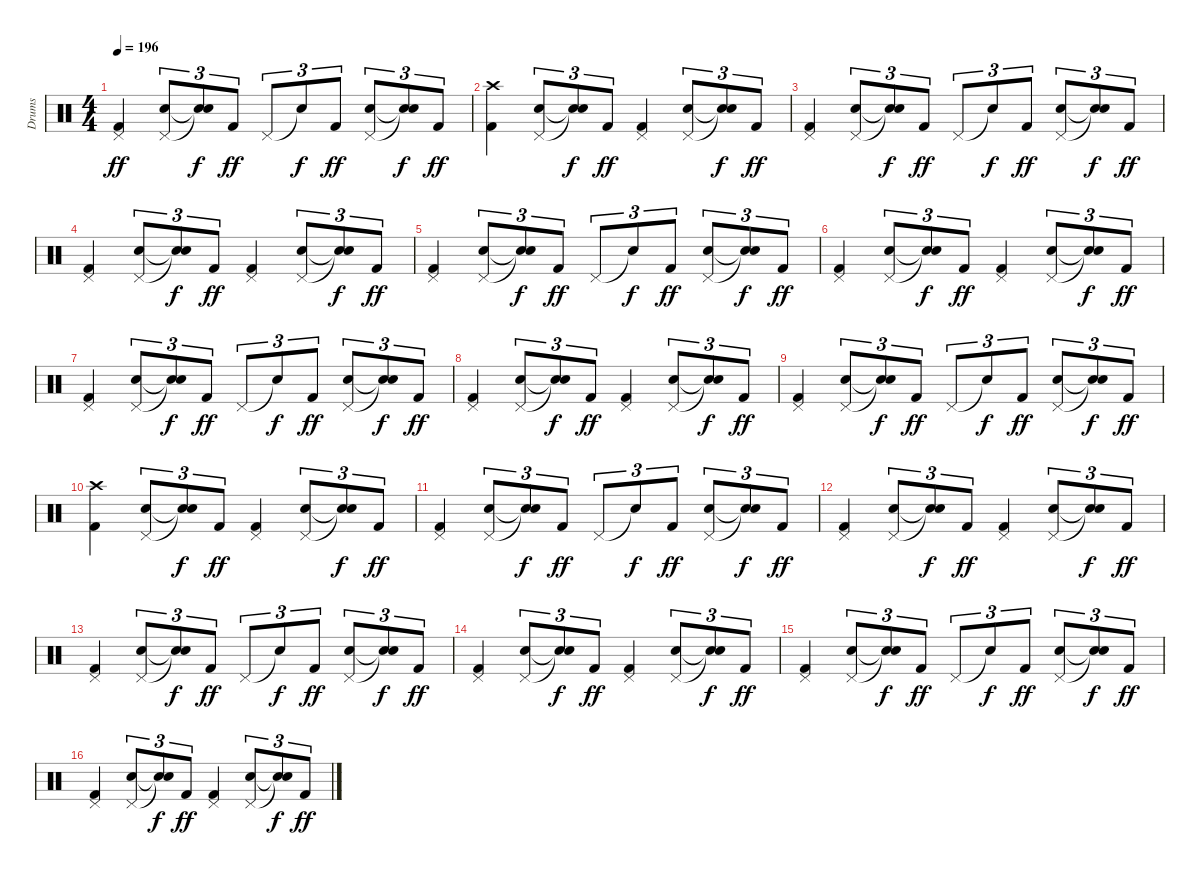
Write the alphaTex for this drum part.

\track ("Drums" "Drums") {instrument percussion}
\staff {score}
\articulation defaults
\ts (4 4)
\tempo 196
\clef neutral
\ks c
("Pedal Hi-Hat (hit)" "Kick (hit) 2").4{dy ff} ("Pedal Hi-Hat (hit)" "Electric Snare (hit)").8{tu (3 2)} ("Snare (hit)"{t} "Snare (hit)"{t}).8{tu (3 2) dy f} "Kick (hit) 2".8{tu (3 2) dy ff} "Pedal Hi-Hat (hit)".8{tu (3 2)} "Snare (hit)"{t}.8{tu (3 2) dy f} "Kick (hit) 2".8{tu (3 2) dy ff} ("Pedal Hi-Hat (hit)" "Electric Snare (hit)").8{tu (3 2)} ("Snare (hit)"{t} "Snare (hit)"{t}).8{tu (3 2) dy f} "Kick (hit) 2".8{tu (3 2) dy ff} |
("Crash high (hit)" "Kick (hit) 2").4 ("Pedal Hi-Hat (hit)" "Electric Snare (hit)").8{tu (3 2)} ("Snare (hit)"{t} "Snare (hit)"{t}).8{tu (3 2) dy f} "Kick (hit) 2".8{tu (3 2) dy ff} ("Pedal Hi-Hat (hit)" "Kick (hit) 2").4 ("Pedal Hi-Hat (hit)" "Electric Snare (hit)").8{tu (3 2)} ("Snare (hit)"{t} "Snare (hit)"{t}).8{tu (3 2) dy f} "Kick (hit) 2".8{tu (3 2) dy ff} |
("Pedal Hi-Hat (hit)" "Kick (hit) 2").4 ("Pedal Hi-Hat (hit)" "Electric Snare (hit)").8{tu (3 2)} ("Snare (hit)"{t} "Snare (hit)"{t}).8{tu (3 2) dy f} "Kick (hit) 2".8{tu (3 2) dy ff} "Pedal Hi-Hat (hit)".8{tu (3 2)} "Snare (hit)"{t}.8{tu (3 2) dy f} "Kick (hit) 2".8{tu (3 2) dy ff} ("Pedal Hi-Hat (hit)" "Electric Snare (hit)").8{tu (3 2)} ("Snare (hit)"{t} "Snare (hit)"{t}).8{tu (3 2) dy f} "Kick (hit) 2".8{tu (3 2) dy ff} |
("Pedal Hi-Hat (hit)" "Kick (hit) 2").4 ("Pedal Hi-Hat (hit)" "Electric Snare (hit)").8{tu (3 2)} ("Snare (hit)"{t} "Snare (hit)"{t}).8{tu (3 2) dy f} "Kick (hit) 2".8{tu (3 2) dy ff} ("Pedal Hi-Hat (hit)" "Kick (hit) 2").4 ("Pedal Hi-Hat (hit)" "Electric Snare (hit)").8{tu (3 2)} ("Snare (hit)"{t} "Snare (hit)"{t}).8{tu (3 2) dy f} "Kick (hit) 2".8{tu (3 2) dy ff} |
("Pedal Hi-Hat (hit)" "Kick (hit) 2").4 ("Pedal Hi-Hat (hit)" "Electric Snare (hit)").8{tu (3 2)} ("Snare (hit)"{t} "Snare (hit)"{t}).8{tu (3 2) dy f} "Kick (hit) 2".8{tu (3 2) dy ff} "Pedal Hi-Hat (hit)".8{tu (3 2)} "Snare (hit)"{t}.8{tu (3 2) dy f} "Kick (hit) 2".8{tu (3 2) dy ff} ("Pedal Hi-Hat (hit)" "Electric Snare (hit)").8{tu (3 2)} ("Snare (hit)"{t} "Snare (hit)"{t}).8{tu (3 2) dy f} "Kick (hit) 2".8{tu (3 2) dy ff} |
("Pedal Hi-Hat (hit)" "Kick (hit) 2").4 ("Pedal Hi-Hat (hit)" "Electric Snare (hit)").8{tu (3 2)} ("Snare (hit)"{t} "Snare (hit)"{t}).8{tu (3 2) dy f} "Kick (hit) 2".8{tu (3 2) dy ff} ("Pedal Hi-Hat (hit)" "Kick (hit) 2").4 ("Pedal Hi-Hat (hit)" "Electric Snare (hit)").8{tu (3 2)} ("Snare (hit)"{t} "Snare (hit)"{t}).8{tu (3 2) dy f} "Kick (hit) 2".8{tu (3 2) dy ff} |
("Pedal Hi-Hat (hit)" "Kick (hit) 2").4 ("Pedal Hi-Hat (hit)" "Electric Snare (hit)").8{tu (3 2)} ("Snare (hit)"{t} "Snare (hit)"{t}).8{tu (3 2) dy f} "Kick (hit) 2".8{tu (3 2) dy ff} "Pedal Hi-Hat (hit)".8{tu (3 2)} "Snare (hit)"{t}.8{tu (3 2) dy f} "Kick (hit) 2".8{tu (3 2) dy ff} ("Pedal Hi-Hat (hit)" "Electric Snare (hit)").8{tu (3 2)} ("Snare (hit)"{t} "Snare (hit)"{t}).8{tu (3 2) dy f} "Kick (hit) 2".8{tu (3 2) dy ff} |
("Pedal Hi-Hat (hit)" "Kick (hit) 2").4 ("Pedal Hi-Hat (hit)" "Electric Snare (hit)").8{tu (3 2)} ("Snare (hit)"{t} "Snare (hit)"{t}).8{tu (3 2) dy f} "Kick (hit) 2".8{tu (3 2) dy ff} ("Pedal Hi-Hat (hit)" "Kick (hit) 2").4 ("Pedal Hi-Hat (hit)" "Electric Snare (hit)").8{tu (3 2)} ("Snare (hit)"{t} "Snare (hit)"{t}).8{tu (3 2) dy f} "Kick (hit) 2".8{tu (3 2) dy ff} |
("Pedal Hi-Hat (hit)" "Kick (hit) 2").4 ("Pedal Hi-Hat (hit)" "Electric Snare (hit)").8{tu (3 2)} ("Snare (hit)"{t} "Snare (hit)"{t}).8{tu (3 2) dy f} "Kick (hit) 2".8{tu (3 2) dy ff} "Pedal Hi-Hat (hit)".8{tu (3 2)} "Snare (hit)"{t}.8{tu (3 2) dy f} "Kick (hit) 2".8{tu (3 2) dy ff} ("Pedal Hi-Hat (hit)" "Electric Snare (hit)").8{tu (3 2)} ("Snare (hit)"{t} "Snare (hit)"{t}).8{tu (3 2) dy f} "Kick (hit) 2".8{tu (3 2) dy ff} |
("Crash high (hit)" "Kick (hit) 2").4 ("Pedal Hi-Hat (hit)" "Electric Snare (hit)").8{tu (3 2)} ("Snare (hit)"{t} "Snare (hit)"{t}).8{tu (3 2) dy f} "Kick (hit) 2".8{tu (3 2) dy ff} ("Pedal Hi-Hat (hit)" "Kick (hit) 2").4 ("Pedal Hi-Hat (hit)" "Electric Snare (hit)").8{tu (3 2)} ("Snare (hit)"{t} "Snare (hit)"{t}).8{tu (3 2) dy f} "Kick (hit) 2".8{tu (3 2) dy ff} |
("Pedal Hi-Hat (hit)" "Kick (hit) 2").4 ("Pedal Hi-Hat (hit)" "Electric Snare (hit)").8{tu (3 2)} ("Snare (hit)"{t} "Snare (hit)"{t}).8{tu (3 2) dy f} "Kick (hit) 2".8{tu (3 2) dy ff} "Pedal Hi-Hat (hit)".8{tu (3 2)} "Snare (hit)"{t}.8{tu (3 2) dy f} "Kick (hit) 2".8{tu (3 2) dy ff} ("Pedal Hi-Hat (hit)" "Electric Snare (hit)").8{tu (3 2)} ("Snare (hit)"{t} "Snare (hit)"{t}).8{tu (3 2) dy f} "Kick (hit) 2".8{tu (3 2) dy ff} |
("Pedal Hi-Hat (hit)" "Kick (hit) 2").4 ("Pedal Hi-Hat (hit)" "Electric Snare (hit)").8{tu (3 2)} ("Snare (hit)"{t} "Snare (hit)"{t}).8{tu (3 2) dy f} "Kick (hit) 2".8{tu (3 2) dy ff} ("Pedal Hi-Hat (hit)" "Kick (hit) 2").4 ("Pedal Hi-Hat (hit)" "Electric Snare (hit)").8{tu (3 2)} ("Snare (hit)"{t} "Snare (hit)"{t}).8{tu (3 2) dy f} "Kick (hit) 2".8{tu (3 2) dy ff} |
("Pedal Hi-Hat (hit)" "Kick (hit) 2").4 ("Pedal Hi-Hat (hit)" "Electric Snare (hit)").8{tu (3 2)} ("Snare (hit)"{t} "Snare (hit)"{t}).8{tu (3 2) dy f} "Kick (hit) 2".8{tu (3 2) dy ff} "Pedal Hi-Hat (hit)".8{tu (3 2)} "Snare (hit)"{t}.8{tu (3 2) dy f} "Kick (hit) 2".8{tu (3 2) dy ff} ("Pedal Hi-Hat (hit)" "Electric Snare (hit)").8{tu (3 2)} ("Snare (hit)"{t} "Snare (hit)"{t}).8{tu (3 2) dy f} "Kick (hit) 2".8{tu (3 2) dy ff} |
("Pedal Hi-Hat (hit)" "Kick (hit) 2").4 ("Pedal Hi-Hat (hit)" "Electric Snare (hit)").8{tu (3 2)} ("Snare (hit)"{t} "Snare (hit)"{t}).8{tu (3 2) dy f} "Kick (hit) 2".8{tu (3 2) dy ff} ("Pedal Hi-Hat (hit)" "Kick (hit) 2").4 ("Pedal Hi-Hat (hit)" "Electric Snare (hit)").8{tu (3 2)} ("Snare (hit)"{t} "Snare (hit)"{t}).8{tu (3 2) dy f} "Kick (hit) 2".8{tu (3 2) dy ff} |
("Pedal Hi-Hat (hit)" "Kick (hit) 2").4 ("Pedal Hi-Hat (hit)" "Electric Snare (hit)").8{tu (3 2)} ("Snare (hit)"{t} "Snare (hit)"{t}).8{tu (3 2) dy f} "Kick (hit) 2".8{tu (3 2) dy ff} "Pedal Hi-Hat (hit)".8{tu (3 2)} "Snare (hit)"{t}.8{tu (3 2) dy f} "Kick (hit) 2".8{tu (3 2) dy ff} ("Pedal Hi-Hat (hit)" "Electric Snare (hit)").8{tu (3 2)} ("Snare (hit)"{t} "Snare (hit)"{t}).8{tu (3 2) dy f} "Kick (hit) 2".8{tu (3 2) dy ff} |
("Pedal Hi-Hat (hit)" "Kick (hit) 2").4 ("Pedal Hi-Hat (hit)" "Electric Snare (hit)").8{tu (3 2)} ("Snare (hit)"{t} "Snare (hit)"{t}).8{tu (3 2) dy f} "Kick (hit) 2".8{tu (3 2) dy ff} ("Pedal Hi-Hat (hit)" "Kick (hit) 2").4 ("Pedal Hi-Hat (hit)" "Electric Snare (hit)").8{tu (3 2)} ("Snare (hit)"{t} "Snare (hit)"{t}).8{tu (3 2) dy f} "Kick (hit) 2".8{tu (3 2) dy ff}
